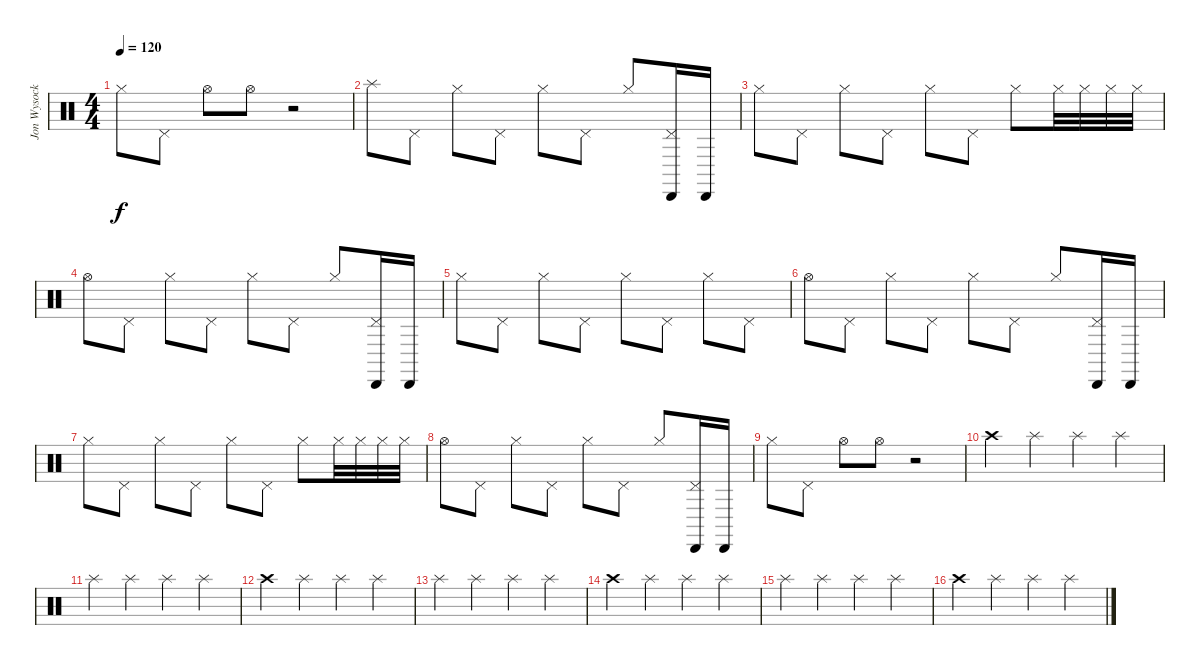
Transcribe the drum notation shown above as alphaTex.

\track ("Jon Wysocki cymbals" "Jon Wysock") {instrument percussion}
\staff {score}
\articulation defaults
\ts (4 4)
\tempo 120
\clef neutral
\ks c "Hi-Hat (closed)".8{dy f} "Pedal Hi-Hat (hit)".8 "Hi-Hat (open)".8 "Hi-Hat (open)".8
r.2 |
"Splash (hit)".8 "Pedal Hi-Hat (hit)".8 "Hi-Hat (closed)".8 "Pedal Hi-Hat (hit)".8 "Hi-Hat (closed)".8 "Pedal Hi-Hat (hit)".8 "Hi-Hat (closed)".8 ("Cabasa (hit)" "Pedal Hi-Hat (hit)").16 "Cabasa (hit)".16 |
"Hi-Hat (closed)".8 "Pedal Hi-Hat (hit)".8 "Hi-Hat (closed)".8 "Pedal Hi-Hat (hit)".8 "Hi-Hat (closed)".8 "Pedal Hi-Hat (hit)".8 "Hi-Hat (closed)".8 "Hi-Hat (closed)".32 "Hi-Hat (closed)".32 "Hi-Hat (closed)".32 "Hi-Hat (closed)".32 |
"Hi-Hat (open)".8 "Pedal Hi-Hat (hit)".8 "Hi-Hat (closed)".8 "Pedal Hi-Hat (hit)".8 "Hi-Hat (closed)".8 "Pedal Hi-Hat (hit)".8 "Hi-Hat (closed)".8 ("Cabasa (hit)" "Pedal Hi-Hat (hit)").16 "Cabasa (hit)".16 |
"Hi-Hat (closed)".8 "Pedal Hi-Hat (hit)".8 "Hi-Hat (closed)".8 "Pedal Hi-Hat (hit)".8 "Hi-Hat (closed)".8 "Pedal Hi-Hat (hit)".8 "Hi-Hat (closed)".8 "Pedal Hi-Hat (hit)".8 |
"Hi-Hat (open)".8 "Pedal Hi-Hat (hit)".8 "Hi-Hat (closed)".8 "Pedal Hi-Hat (hit)".8 "Hi-Hat (closed)".8 "Pedal Hi-Hat (hit)".8 "Hi-Hat (closed)".8 ("Cabasa (hit)" "Pedal Hi-Hat (hit)").16 "Cabasa (hit)".16 |
"Hi-Hat (closed)".8 "Pedal Hi-Hat (hit)".8 "Hi-Hat (closed)".8 "Pedal Hi-Hat (hit)".8 "Hi-Hat (closed)".8 "Pedal Hi-Hat (hit)".8 "Hi-Hat (closed)".8 "Hi-Hat (closed)".32 "Hi-Hat (closed)".32 "Hi-Hat (closed)".32 "Hi-Hat (closed)".32 |
"Hi-Hat (open)".8 "Pedal Hi-Hat (hit)".8 "Hi-Hat (closed)".8 "Pedal Hi-Hat (hit)".8 "Hi-Hat (closed)".8 "Pedal Hi-Hat (hit)".8 "Hi-Hat (closed)".8 ("Cabasa (hit)" "Pedal Hi-Hat (hit)").16 "Cabasa (hit)".16 |
"Hi-Hat (closed)".8 "Pedal Hi-Hat (hit)".8 "Hi-Hat (open)".8 "Hi-Hat (open)".8 r.2 |
"Crash high (hit)".4 "Splash (hit)".4 "Splash (hit)".4 "Splash (hit)".4 |
"Splash (hit)".4 "Splash (hit)".4 "Splash (hit)".4 "Splash (hit)".4 |
"Crash high (hit)".4 "Splash (hit)".4 "Splash (hit)".4 "Splash (hit)".4 |
"Splash (hit)".4 "Splash (hit)".4 "Splash (hit)".4 "Splash (hit)".4 |
"Crash high (hit)".4 "Splash (hit)".4 "Splash (hit)".4 "Splash (hit)".4 |
"Splash (hit)".4 "Splash (hit)".4 "Splash (hit)".4 "Splash (hit)".4 |
"Crash high (hit)".4 "Splash (hit)".4 "Splash (hit)".4 "Splash (hit)".4
